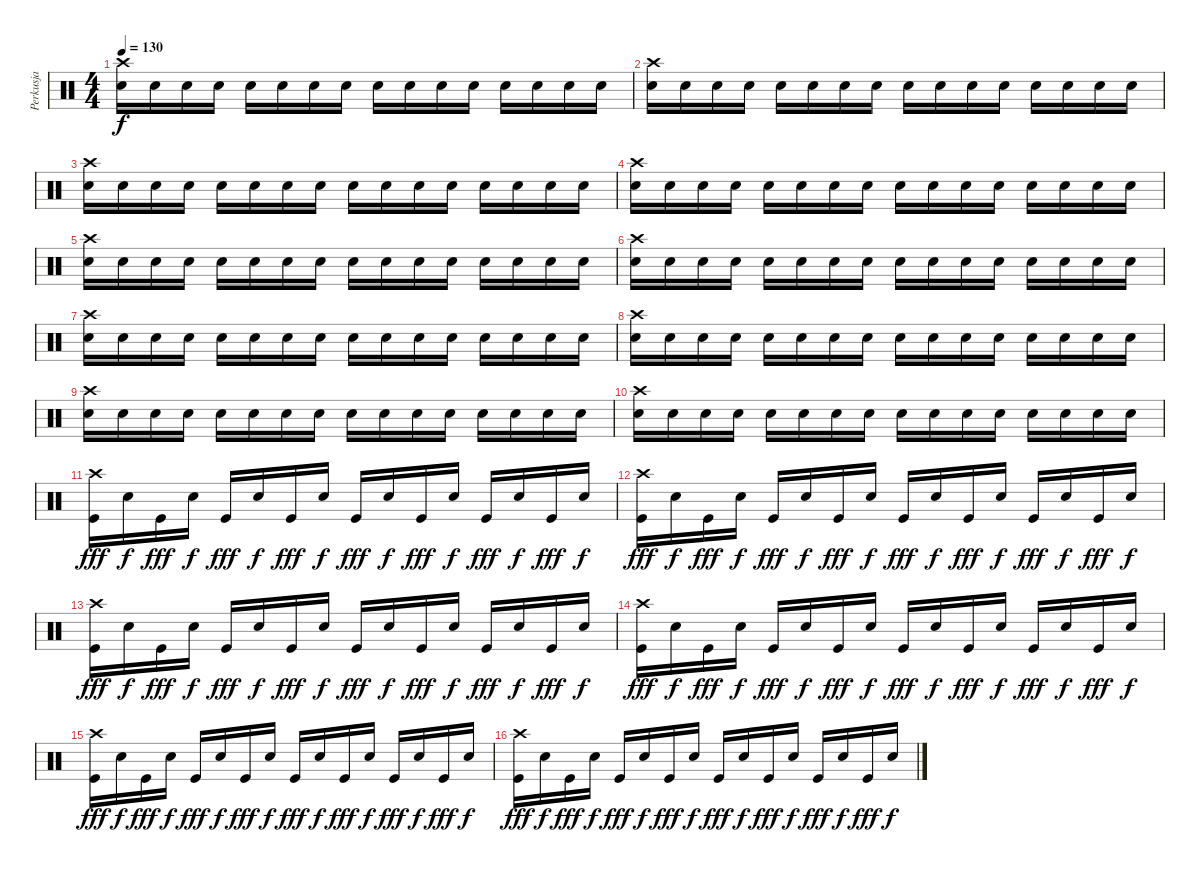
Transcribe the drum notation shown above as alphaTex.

\track ("Perkusja" "Perkusja") {instrument percussion}
\staff {score}
\articulation defaults
\ts (4 4)
\tempo 130
\clef neutral
\ks c
("Crash high (hit)" "Snare (hit) 2").16{dy f} "Snare (hit) 2".16 "Snare (hit) 2".16 "Snare (hit) 2".16 "Snare (hit) 2".16 "Snare (hit) 2".16 "Snare (hit) 2".16 "Snare (hit) 2".16 "Snare (hit) 2".16 "Snare (hit) 2".16 "Snare (hit) 2".16 "Snare (hit) 2".16 "Snare (hit) 2".16 "Snare (hit) 2".16 "Snare (hit) 2".16 "Snare (hit) 2".16 |
("Crash high (hit)" "Snare (hit) 2").16 "Snare (hit) 2".16 "Snare (hit) 2".16 "Snare (hit) 2".16 "Snare (hit) 2".16 "Snare (hit) 2".16 "Snare (hit) 2".16 "Snare (hit) 2".16 "Snare (hit) 2".16 "Snare (hit) 2".16 "Snare (hit) 2".16 "Snare (hit) 2".16 "Snare (hit) 2".16 "Snare (hit) 2".16 "Snare (hit) 2".16 "Snare (hit) 2".16 |
("Crash high (hit)" "Snare (hit) 2").16 "Snare (hit) 2".16 "Snare (hit) 2".16 "Snare (hit) 2".16 "Snare (hit) 2".16 "Snare (hit) 2".16 "Snare (hit) 2".16 "Snare (hit) 2".16 "Snare (hit) 2".16 "Snare (hit) 2".16 "Snare (hit) 2".16 "Snare (hit) 2".16 "Snare (hit) 2".16 "Snare (hit) 2".16 "Snare (hit) 2".16 "Snare (hit) 2".16 |
("Crash high (hit)" "Snare (hit) 2").16 "Snare (hit) 2".16 "Snare (hit) 2".16 "Snare (hit) 2".16 "Snare (hit) 2".16 "Snare (hit) 2".16 "Snare (hit) 2".16 "Snare (hit) 2".16 "Snare (hit) 2".16 "Snare (hit) 2".16 "Snare (hit) 2".16 "Snare (hit) 2".16 "Snare (hit) 2".16 "Snare (hit) 2".16 "Snare (hit) 2".16 "Snare (hit) 2".16 |
("Crash high (hit)" "Snare (hit) 2").16 "Snare (hit) 2".16 "Snare (hit) 2".16 "Snare (hit) 2".16 "Snare (hit) 2".16 "Snare (hit) 2".16 "Snare (hit) 2".16 "Snare (hit) 2".16 "Snare (hit) 2".16 "Snare (hit) 2".16 "Snare (hit) 2".16 "Snare (hit) 2".16 "Snare (hit) 2".16 "Snare (hit) 2".16 "Snare (hit) 2".16 "Snare (hit) 2".16 |
("Crash high (hit)" "Snare (hit) 2").16 "Snare (hit) 2".16 "Snare (hit) 2".16 "Snare (hit) 2".16 "Snare (hit) 2".16 "Snare (hit) 2".16 "Snare (hit) 2".16 "Snare (hit) 2".16 "Snare (hit) 2".16 "Snare (hit) 2".16 "Snare (hit) 2".16 "Snare (hit) 2".16 "Snare (hit) 2".16 "Snare (hit) 2".16 "Snare (hit) 2".16 "Snare (hit) 2".16 |
("Crash high (hit)" "Snare (hit) 2").16 "Snare (hit) 2".16 "Snare (hit) 2".16 "Snare (hit) 2".16 "Snare (hit) 2".16 "Snare (hit) 2".16 "Snare (hit) 2".16 "Snare (hit) 2".16 "Snare (hit) 2".16 "Snare (hit) 2".16 "Snare (hit) 2".16 "Snare (hit) 2".16 "Snare (hit) 2".16 "Snare (hit) 2".16 "Snare (hit) 2".16 "Snare (hit) 2".16 |
("Crash high (hit)" "Snare (hit) 2").16 "Snare (hit) 2".16 "Snare (hit) 2".16 "Snare (hit) 2".16 "Snare (hit) 2".16 "Snare (hit) 2".16 "Snare (hit) 2".16 "Snare (hit) 2".16 "Snare (hit) 2".16 "Snare (hit) 2".16 "Snare (hit) 2".16 "Snare (hit) 2".16 "Snare (hit) 2".16 "Snare (hit) 2".16 "Snare (hit) 2".16 "Snare (hit) 2".16 |
("Crash high (hit)" "Snare (hit) 2").16 "Snare (hit) 2".16 "Snare (hit) 2".16 "Snare (hit) 2".16 "Snare (hit) 2".16 "Snare (hit) 2".16 "Snare (hit) 2".16 "Snare (hit) 2".16 "Snare (hit) 2".16 "Snare (hit) 2".16 "Snare (hit) 2".16 "Snare (hit) 2".16 "Snare (hit) 2".16 "Snare (hit) 2".16 "Snare (hit) 2".16 "Snare (hit) 2".16 |
("Crash high (hit)" "Snare (hit) 2").16 "Snare (hit) 2".16 "Snare (hit) 2".16 "Snare (hit) 2".16 "Snare (hit) 2".16 "Snare (hit) 2".16 "Snare (hit) 2".16 "Snare (hit) 2".16 "Snare (hit) 2".16 "Snare (hit) 2".16 "Snare (hit) 2".16 "Snare (hit) 2".16 "Snare (hit) 2".16 "Snare (hit) 2".16 "Snare (hit) 2".16 "Snare (hit) 2".16 |
("Crash high (hit)" "Kick (hit)").16{dy fff} "Snare (hit) 2".16{dy f} "Kick (hit)".16{dy fff} "Snare (hit) 2".16{dy f} "Kick (hit)".16{dy fff} "Snare (hit) 2".16{dy f} "Kick (hit)".16{dy fff} "Snare (hit) 2".16{dy f} "Kick (hit)".16{dy fff} "Snare (hit) 2".16{dy f} "Kick (hit)".16{dy fff} "Snare (hit) 2".16{dy f} "Kick (hit)".16{dy fff} "Snare (hit) 2".16{dy f} "Kick (hit)".16{dy fff} "Snare (hit) 2".16{dy f} |
("Crash high (hit)" "Kick (hit)").16{dy fff} "Snare (hit) 2".16{dy f} "Kick (hit)".16{dy fff} "Snare (hit) 2".16{dy f} "Kick (hit)".16{dy fff} "Snare (hit) 2".16{dy f} "Kick (hit)".16{dy fff} "Snare (hit) 2".16{dy f} "Kick (hit)".16{dy fff} "Snare (hit) 2".16{dy f} "Kick (hit)".16{dy fff} "Snare (hit) 2".16{dy f} "Kick (hit)".16{dy fff} "Snare (hit) 2".16{dy f} "Kick (hit)".16{dy fff} "Snare (hit) 2".16{dy f} |
("Crash high (hit)" "Kick (hit)").16{dy fff} "Snare (hit) 2".16{dy f} "Kick (hit)".16{dy fff} "Snare (hit) 2".16{dy f} "Kick (hit)".16{dy fff} "Snare (hit) 2".16{dy f} "Kick (hit)".16{dy fff} "Snare (hit) 2".16{dy f} "Kick (hit)".16{dy fff} "Snare (hit) 2".16{dy f} "Kick (hit)".16{dy fff} "Snare (hit) 2".16{dy f} "Kick (hit)".16{dy fff} "Snare (hit) 2".16{dy f} "Kick (hit)".16{dy fff} "Snare (hit) 2".16{dy f} |
("Crash high (hit)" "Kick (hit)").16{dy fff} "Snare (hit) 2".16{dy f} "Kick (hit)".16{dy fff} "Snare (hit) 2".16{dy f} "Kick (hit)".16{dy fff} "Snare (hit) 2".16{dy f} "Kick (hit)".16{dy fff} "Snare (hit) 2".16{dy f} "Kick (hit)".16{dy fff} "Snare (hit) 2".16{dy f} "Kick (hit)".16{dy fff} "Snare (hit) 2".16{dy f} "Kick (hit)".16{dy fff} "Snare (hit) 2".16{dy f} "Kick (hit)".16{dy fff} "Snare (hit) 2".16{dy f} |
("Crash high (hit)" "Kick (hit)").16{dy fff} "Snare (hit) 2".16{dy f} "Kick (hit)".16{dy fff} "Snare (hit) 2".16{dy f} "Kick (hit)".16{dy fff} "Snare (hit) 2".16{dy f} "Kick (hit)".16{dy fff} "Snare (hit) 2".16{dy f} "Kick (hit)".16{dy fff} "Snare (hit) 2".16{dy f} "Kick (hit)".16{dy fff} "Snare (hit) 2".16{dy f} "Kick (hit)".16{dy fff} "Snare (hit) 2".16{dy f} "Kick (hit)".16{dy fff} "Snare (hit) 2".16{dy f} |
("Crash high (hit)" "Kick (hit)").16{dy fff} "Snare (hit) 2".16{dy f} "Kick (hit)".16{dy fff} "Snare (hit) 2".16{dy f} "Kick (hit)".16{dy fff} "Snare (hit) 2".16{dy f} "Kick (hit)".16{dy fff} "Snare (hit) 2".16{dy f} "Kick (hit)".16{dy fff} "Snare (hit) 2".16{dy f} "Kick (hit)".16{dy fff} "Snare (hit) 2".16{dy f} "Kick (hit)".16{dy fff} "Snare (hit) 2".16{dy f} "Kick (hit)".16{dy fff} "Snare (hit) 2".16{dy f}
